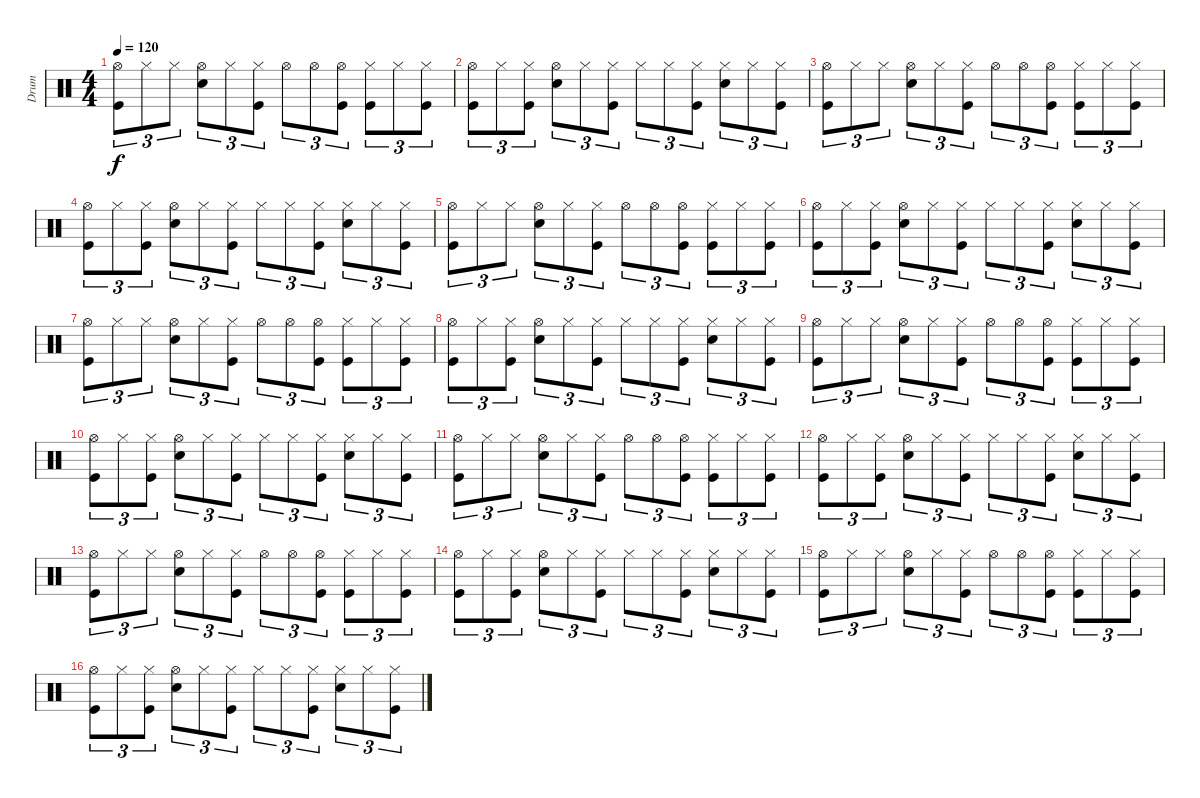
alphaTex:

\track ("Drum" "Drum") {instrument percussion}
\staff {score}
\articulation defaults
\ts (4 4)
\tempo 120
\clef neutral
\ks c
("Hi-Hat (open)" "Kick (hit)").8{tu (3 2) dy f} "Hi-Hat (closed)".8{tu (3 2)} "Hi-Hat (closed)".8{tu (3 2)} ("Hi-Hat (open)" "Electric Snare (hit)").8{tu (3 2)} "Hi-Hat (closed)".8{tu (3 2)} ("Hi-Hat (closed)" "Kick (hit)").8{tu (3 2)} "Hi-Hat (open)".8{tu (3 2)} "Hi-Hat (open)".8{tu (3 2)} ("Hi-Hat (open)" "Kick (hit)").8{tu (3 2)} ("Hi-Hat (closed)" "Kick (hit)").8{tu (3 2)} "Hi-Hat (closed)".8{tu (3 2)} ("Hi-Hat (closed)" "Kick (hit)").8{tu (3 2)} |
("Hi-Hat (open)" "Kick (hit)").8{tu (3 2)} "Hi-Hat (closed)".8{tu (3 2)} ("Hi-Hat (closed)" "Kick (hit)").8{tu (3 2)} ("Hi-Hat (open)" "Electric Snare (hit)").8{tu (3 2)} "Hi-Hat (closed)".8{tu (3 2)} ("Hi-Hat (closed)" "Kick (hit)").8{tu (3 2)} "Hi-Hat (closed)".8{tu (3 2)} "Hi-Hat (closed)".8{tu (3 2)} ("Hi-Hat (closed)" "Kick (hit)").8{tu (3 2)} ("Hi-Hat (closed)" "Electric Snare (hit)").8{tu (3 2)} "Hi-Hat (closed)".8{tu (3 2)} ("Hi-Hat (closed)" "Kick (hit)").8{tu (3 2)} |
("Hi-Hat (open)" "Kick (hit)").8{tu (3 2)} "Hi-Hat (closed)".8{tu (3 2)} "Hi-Hat (closed)".8{tu (3 2)} ("Hi-Hat (open)" "Electric Snare (hit)").8{tu (3 2)} "Hi-Hat (closed)".8{tu (3 2)} ("Hi-Hat (closed)" "Kick (hit)").8{tu (3 2)} "Hi-Hat (open)".8{tu (3 2)} "Hi-Hat (open)".8{tu (3 2)} ("Hi-Hat (open)" "Kick (hit)").8{tu (3 2)} ("Hi-Hat (closed)" "Kick (hit)").8{tu (3 2)} "Hi-Hat (closed)".8{tu (3 2)} ("Hi-Hat (closed)" "Kick (hit)").8{tu (3 2)} |
("Hi-Hat (open)" "Kick (hit)").8{tu (3 2)} "Hi-Hat (closed)".8{tu (3 2)} ("Hi-Hat (closed)" "Kick (hit)").8{tu (3 2)} ("Hi-Hat (open)" "Electric Snare (hit)").8{tu (3 2)} "Hi-Hat (closed)".8{tu (3 2)} ("Hi-Hat (closed)" "Kick (hit)").8{tu (3 2)} "Hi-Hat (closed)".8{tu (3 2)} "Hi-Hat (closed)".8{tu (3 2)} ("Hi-Hat (closed)" "Kick (hit)").8{tu (3 2)} ("Hi-Hat (closed)" "Electric Snare (hit)").8{tu (3 2)} "Hi-Hat (closed)".8{tu (3 2)} ("Hi-Hat (closed)" "Kick (hit)").8{tu (3 2)} |
("Hi-Hat (open)" "Kick (hit)").8{tu (3 2)} "Hi-Hat (closed)".8{tu (3 2)} "Hi-Hat (closed)".8{tu (3 2)} ("Hi-Hat (open)" "Electric Snare (hit)").8{tu (3 2)} "Hi-Hat (closed)".8{tu (3 2)} ("Hi-Hat (closed)" "Kick (hit)").8{tu (3 2)} "Hi-Hat (open)".8{tu (3 2)} "Hi-Hat (open)".8{tu (3 2)} ("Hi-Hat (open)" "Kick (hit)").8{tu (3 2)} ("Hi-Hat (closed)" "Kick (hit)").8{tu (3 2)} "Hi-Hat (closed)".8{tu (3 2)} ("Hi-Hat (closed)" "Kick (hit)").8{tu (3 2)} |
("Hi-Hat (open)" "Kick (hit)").8{tu (3 2)} "Hi-Hat (closed)".8{tu (3 2)} ("Hi-Hat (closed)" "Kick (hit)").8{tu (3 2)} ("Hi-Hat (open)" "Electric Snare (hit)").8{tu (3 2)} "Hi-Hat (closed)".8{tu (3 2)} ("Hi-Hat (closed)" "Kick (hit)").8{tu (3 2)} "Hi-Hat (closed)".8{tu (3 2)} "Hi-Hat (closed)".8{tu (3 2)} ("Hi-Hat (closed)" "Kick (hit)").8{tu (3 2)} ("Hi-Hat (closed)" "Electric Snare (hit)").8{tu (3 2)} "Hi-Hat (closed)".8{tu (3 2)} ("Hi-Hat (closed)" "Kick (hit)").8{tu (3 2)} |
("Hi-Hat (open)" "Kick (hit)").8{tu (3 2)} "Hi-Hat (closed)".8{tu (3 2)} "Hi-Hat (closed)".8{tu (3 2)} ("Hi-Hat (open)" "Electric Snare (hit)").8{tu (3 2)} "Hi-Hat (closed)".8{tu (3 2)} ("Hi-Hat (closed)" "Kick (hit)").8{tu (3 2)} "Hi-Hat (open)".8{tu (3 2)} "Hi-Hat (open)".8{tu (3 2)} ("Hi-Hat (open)" "Kick (hit)").8{tu (3 2)} ("Hi-Hat (closed)" "Kick (hit)").8{tu (3 2)} "Hi-Hat (closed)".8{tu (3 2)} ("Hi-Hat (closed)" "Kick (hit)").8{tu (3 2)} |
("Hi-Hat (open)" "Kick (hit)").8{tu (3 2)} "Hi-Hat (closed)".8{tu (3 2)} ("Hi-Hat (closed)" "Kick (hit)").8{tu (3 2)} ("Hi-Hat (open)" "Electric Snare (hit)").8{tu (3 2)} "Hi-Hat (closed)".8{tu (3 2)} ("Hi-Hat (closed)" "Kick (hit)").8{tu (3 2)} "Hi-Hat (closed)".8{tu (3 2)} "Hi-Hat (closed)".8{tu (3 2)} ("Hi-Hat (closed)" "Kick (hit)").8{tu (3 2)} ("Hi-Hat (closed)" "Electric Snare (hit)").8{tu (3 2)} "Hi-Hat (closed)".8{tu (3 2)} ("Hi-Hat (closed)" "Kick (hit)").8{tu (3 2)} |
("Hi-Hat (open)" "Kick (hit)").8{tu (3 2)} "Hi-Hat (closed)".8{tu (3 2)} "Hi-Hat (closed)".8{tu (3 2)} ("Hi-Hat (open)" "Electric Snare (hit)").8{tu (3 2)} "Hi-Hat (closed)".8{tu (3 2)} ("Hi-Hat (closed)" "Kick (hit)").8{tu (3 2)} "Hi-Hat (open)".8{tu (3 2)} "Hi-Hat (open)".8{tu (3 2)} ("Hi-Hat (open)" "Kick (hit)").8{tu (3 2)} ("Hi-Hat (closed)" "Kick (hit)").8{tu (3 2)} "Hi-Hat (closed)".8{tu (3 2)} ("Hi-Hat (closed)" "Kick (hit)").8{tu (3 2)} |
("Hi-Hat (open)" "Kick (hit)").8{tu (3 2)} "Hi-Hat (closed)".8{tu (3 2)} ("Hi-Hat (closed)" "Kick (hit)").8{tu (3 2)} ("Hi-Hat (open)" "Electric Snare (hit)").8{tu (3 2)} "Hi-Hat (closed)".8{tu (3 2)} ("Hi-Hat (closed)" "Kick (hit)").8{tu (3 2)} "Hi-Hat (closed)".8{tu (3 2)} "Hi-Hat (closed)".8{tu (3 2)} ("Hi-Hat (closed)" "Kick (hit)").8{tu (3 2)} ("Hi-Hat (closed)" "Electric Snare (hit)").8{tu (3 2)} "Hi-Hat (closed)".8{tu (3 2)} ("Hi-Hat (closed)" "Kick (hit)").8{tu (3 2)} |
("Hi-Hat (open)" "Kick (hit)").8{tu (3 2)} "Hi-Hat (closed)".8{tu (3 2)} "Hi-Hat (closed)".8{tu (3 2)} ("Hi-Hat (open)" "Electric Snare (hit)").8{tu (3 2)} "Hi-Hat (closed)".8{tu (3 2)} ("Hi-Hat (closed)" "Kick (hit)").8{tu (3 2)} "Hi-Hat (open)".8{tu (3 2)} "Hi-Hat (open)".8{tu (3 2)} ("Hi-Hat (open)" "Kick (hit)").8{tu (3 2)} ("Hi-Hat (closed)" "Kick (hit)").8{tu (3 2)} "Hi-Hat (closed)".8{tu (3 2)} ("Hi-Hat (closed)" "Kick (hit)").8{tu (3 2)} |
("Hi-Hat (open)" "Kick (hit)").8{tu (3 2)} "Hi-Hat (closed)".8{tu (3 2)} ("Hi-Hat (closed)" "Kick (hit)").8{tu (3 2)} ("Hi-Hat (open)" "Electric Snare (hit)").8{tu (3 2)} "Hi-Hat (closed)".8{tu (3 2)} ("Hi-Hat (closed)" "Kick (hit)").8{tu (3 2)} "Hi-Hat (closed)".8{tu (3 2)} "Hi-Hat (closed)".8{tu (3 2)} ("Hi-Hat (closed)" "Kick (hit)").8{tu (3 2)} ("Hi-Hat (closed)" "Electric Snare (hit)").8{tu (3 2)} "Hi-Hat (closed)".8{tu (3 2)} ("Hi-Hat (closed)" "Kick (hit)").8{tu (3 2)} |
("Hi-Hat (open)" "Kick (hit)").8{tu (3 2)} "Hi-Hat (closed)".8{tu (3 2)} "Hi-Hat (closed)".8{tu (3 2)} ("Hi-Hat (open)" "Electric Snare (hit)").8{tu (3 2)} "Hi-Hat (closed)".8{tu (3 2)} ("Hi-Hat (closed)" "Kick (hit)").8{tu (3 2)} "Hi-Hat (open)".8{tu (3 2)} "Hi-Hat (open)".8{tu (3 2)} ("Hi-Hat (open)" "Kick (hit)").8{tu (3 2)} ("Hi-Hat (closed)" "Kick (hit)").8{tu (3 2)} "Hi-Hat (closed)".8{tu (3 2)} ("Hi-Hat (closed)" "Kick (hit)").8{tu (3 2)} |
("Hi-Hat (open)" "Kick (hit)").8{tu (3 2)} "Hi-Hat (closed)".8{tu (3 2)} ("Hi-Hat (closed)" "Kick (hit)").8{tu (3 2)} ("Hi-Hat (open)" "Electric Snare (hit)").8{tu (3 2)} "Hi-Hat (closed)".8{tu (3 2)} ("Hi-Hat (closed)" "Kick (hit)").8{tu (3 2)} "Hi-Hat (closed)".8{tu (3 2)} "Hi-Hat (closed)".8{tu (3 2)} ("Hi-Hat (closed)" "Kick (hit)").8{tu (3 2)} ("Hi-Hat (closed)" "Electric Snare (hit)").8{tu (3 2)} "Hi-Hat (closed)".8{tu (3 2)} ("Hi-Hat (closed)" "Kick (hit)").8{tu (3 2)} |
("Hi-Hat (open)" "Kick (hit)").8{tu (3 2)} "Hi-Hat (closed)".8{tu (3 2)} "Hi-Hat (closed)".8{tu (3 2)} ("Hi-Hat (open)" "Electric Snare (hit)").8{tu (3 2)} "Hi-Hat (closed)".8{tu (3 2)} ("Hi-Hat (closed)" "Kick (hit)").8{tu (3 2)} "Hi-Hat (open)".8{tu (3 2)} "Hi-Hat (open)".8{tu (3 2)} ("Hi-Hat (open)" "Kick (hit)").8{tu (3 2)} ("Hi-Hat (closed)" "Kick (hit)").8{tu (3 2)} "Hi-Hat (closed)".8{tu (3 2)} ("Hi-Hat (closed)" "Kick (hit)").8{tu (3 2)} |
("Hi-Hat (open)" "Kick (hit)").8{tu (3 2)} "Hi-Hat (closed)".8{tu (3 2)} ("Hi-Hat (closed)" "Kick (hit)").8{tu (3 2)} ("Hi-Hat (open)" "Electric Snare (hit)").8{tu (3 2)} "Hi-Hat (closed)".8{tu (3 2)} ("Hi-Hat (closed)" "Kick (hit)").8{tu (3 2)} "Hi-Hat (closed)".8{tu (3 2)} "Hi-Hat (closed)".8{tu (3 2)} ("Hi-Hat (closed)" "Kick (hit)").8{tu (3 2)} ("Hi-Hat (closed)" "Electric Snare (hit)").8{tu (3 2)} "Hi-Hat (closed)".8{tu (3 2)} ("Hi-Hat (closed)" "Kick (hit)").8{tu (3 2)}
